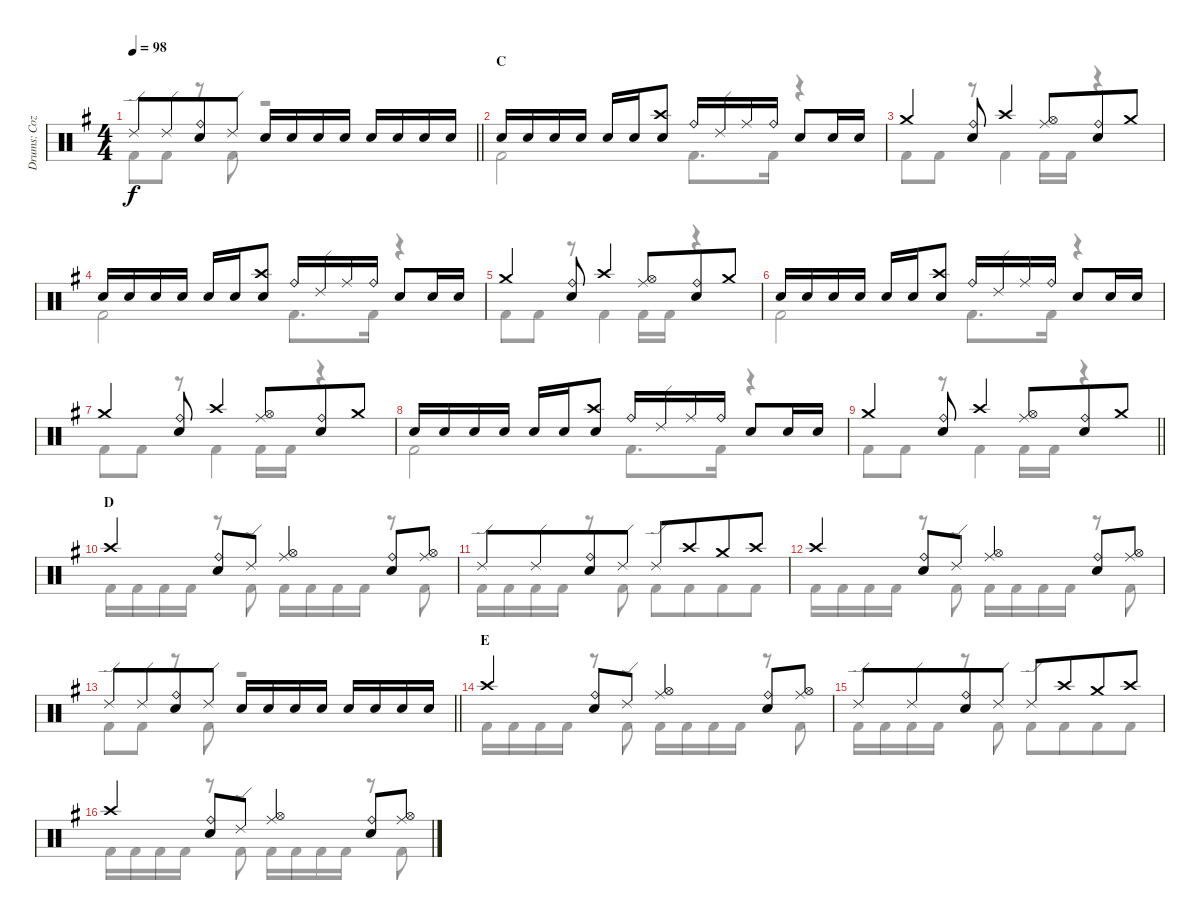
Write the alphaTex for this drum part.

\track ("Drums: Cozy" "Drums: Coz") {instrument percussion}
\staff {score}
\articulation defaults
\voice
\ts (4 4)
\tempo 98
\clef neutral
\barLineRight lightlight
\ks g "Ride (edge) 2".8{dy f} "Ride (edge) 2".8{beam merge}
("Ride (bell)" "Snare (hit) 2").8 "Ride (edge) 2".8 "Snare (hit) 2".16 "Snare (hit) 2".16{beam merge} "Snare (hit) 2".16 "Snare (hit) 2".16 "Snare (hit) 2".16 "Snare (hit) 2".16{beam merge} "Snare (hit) 2".16 "Snare (hit) 2".16 |
\section ("" "C")
"Snare (hit) 2".16 "Snare (hit) 2".16 "Snare (hit) 2".16 "Snare (hit) 2".16 "Snare (hit) 2".16 "Snare (hit) 2".16 ("Crash high (hit)" "Snare (hit) 2").8 "Ride (bell)".16 "Ride (edge) 2".16 "Ride (middle)".16 "Ride (bell)".16 "Snare (hit) 2".8 "Snare (hit) 2".16 "Snare (hit) 2".16 |
"Crash medium (hit)".4 ("Ride (bell)" "Snare (hit) 2").8 "Crash high (hit)".4 ("Ride (middle)" "Hi-Hat (open)").8{beam merge} ("Ride (bell)" "Snare (hit) 2").8 "Crash medium (hit)".8 |
"Snare (hit) 2".16 "Snare (hit) 2".16 "Snare (hit) 2".16 "Snare (hit) 2".16 "Snare (hit) 2".16 "Snare (hit) 2".16 ("Crash high (hit)" "Snare (hit) 2").8 "Ride (bell)".16 "Ride (edge) 2".16 "Ride (middle)".16 "Ride (bell)".16 "Snare (hit) 2".8 "Snare (hit) 2".16 "Snare (hit) 2".16 |
"Crash medium (hit)".4 ("Ride (bell)" "Snare (hit) 2").8 "Crash high (hit)".4 ("Ride (middle)" "Hi-Hat (open)").8{beam merge} ("Ride (bell)" "Snare (hit) 2").8 "Crash medium (hit)".8 |
"Snare (hit) 2".16 "Snare (hit) 2".16 "Snare (hit) 2".16 "Snare (hit) 2".16 "Snare (hit) 2".16 "Snare (hit) 2".16 ("Crash high (hit)" "Snare (hit) 2").8 "Ride (bell)".16 "Ride (edge) 2".16 "Ride (middle)".16 "Ride (bell)".16 "Snare (hit) 2".8 "Snare (hit) 2".16 "Snare (hit) 2".16 |
"Crash medium (hit)".4 ("Ride (bell)" "Snare (hit) 2").8 "Crash high (hit)".4 ("Ride (middle)" "Hi-Hat (open)").8{beam merge} ("Ride (bell)" "Snare (hit) 2").8 "Crash medium (hit)".8 |
"Snare (hit) 2".16 "Snare (hit) 2".16 "Snare (hit) 2".16 "Snare (hit) 2".16 "Snare (hit) 2".16 "Snare (hit) 2".16 ("Crash high (hit)" "Snare (hit) 2").8 "Ride (bell)".16 "Ride (edge) 2".16 "Ride (middle)".16 "Ride (bell)".16 "Snare (hit) 2".8 "Snare (hit) 2".16 "Snare (hit) 2".16 |
\barLineRight lightlight "Crash medium (hit)".4
("Ride (bell)" "Snare (hit) 2").8 "Crash high (hit)".4 ("Ride (middle)" "Hi-Hat (open)").8{beam merge} ("Ride (bell)" "Snare (hit) 2").8 "Crash medium (hit)".8 |
\section ("" "D")
"Crash high (hit)".4 ("Ride (bell)" "Snare (hit) 2").8 "Ride (edge) 2".8 ("Ride (middle)" "Hi-Hat (open)").4 ("Ride (bell)" "Snare (hit) 2").8 ("Ride (middle)" "Hi-Hat (open)").8 |
"Ride (edge) 2".8 "Ride (edge) 2".8{beam merge} ("Ride (bell)" "Snare (hit) 2").8 "Ride (edge) 2".8 "Ride (edge) 2".8 "Crash high (hit)".8{beam merge} "Crash medium (hit)".8 "Crash high (hit)".8 |
"Crash high (hit)".4 ("Ride (bell)" "Snare (hit) 2").8 "Ride (edge) 2".8 ("Ride (middle)" "Hi-Hat (open)").4 ("Ride (bell)" "Snare (hit) 2").8 ("Ride (middle)" "Hi-Hat (open)").8 |
\barLineRight lightlight "Ride (edge) 2".8 "Ride (edge) 2".8{beam merge}
("Ride (bell)" "Snare (hit) 2").8 "Ride (edge) 2".8 "Snare (hit) 2".16 "Snare (hit) 2".16{beam merge} "Snare (hit) 2".16 "Snare (hit) 2".16 "Snare (hit) 2".16 "Snare (hit) 2".16{beam merge} "Snare (hit) 2".16 "Snare (hit) 2".16 |
\section ("" "E")
"Crash high (hit)".4 ("Ride (bell)" "Snare (hit) 2").8 "Ride (edge) 2".8 ("Ride (middle)" "Hi-Hat (open)").4 ("Ride (bell)" "Snare (hit) 2").8 ("Ride (middle)" "Hi-Hat (open)").8 |
"Ride (edge) 2".8 "Ride (edge) 2".8{beam merge} ("Ride (bell)" "Snare (hit) 2").8 "Ride (edge) 2".8 "Ride (edge) 2".8 "Crash high (hit)".8{beam merge} "Crash medium (hit)".8 "Crash high (hit)".8 |
"Crash high (hit)".4 ("Ride (bell)" "Snare (hit) 2").8 "Ride (edge) 2".8 ("Ride (middle)" "Hi-Hat (open)").4 ("Ride (bell)" "Snare (hit) 2").8 ("Ride (middle)" "Hi-Hat (open)").8
\voice
\clef neutral
\ottava regular
\simile none
\barLineRight lightlight
\ks g "Kick (hit) 2".8{dy f} "Kick (hit) 2".8
r.8 "Kick (hit) 2".8 r.2 |
"Kick (hit) 2".2 "Kick (hit) 2".8{d} "Kick (hit) 2".16 r.4 |
"Kick (hit) 2".8 "Kick (hit) 2".8 r.8 "Kick (hit) 2".4 "Kick (hit) 2".16 "Kick (hit) 2".16 r.4 |
"Kick (hit) 2".2 "Kick (hit) 2".8{d} "Kick (hit) 2".16 r.4 |
"Kick (hit) 2".8 "Kick (hit) 2".8 r.8 "Kick (hit) 2".4 "Kick (hit) 2".16 "Kick (hit) 2".16 r.4 |
"Kick (hit) 2".2 "Kick (hit) 2".8{d} "Kick (hit) 2".16 r.4 |
"Kick (hit) 2".8 "Kick (hit) 2".8 r.8 "Kick (hit) 2".4 "Kick (hit) 2".16 "Kick (hit) 2".16 r.4 |
"Kick (hit) 2".2 "Kick (hit) 2".8{d} "Kick (hit) 2".16 r.4 |
\barLineRight lightlight "Kick (hit) 2".8 "Kick (hit) 2".8
r.8 "Kick (hit) 2".4 "Kick (hit) 2".16 "Kick (hit) 2".16 r.4 |
"Kick (hit) 2".16 "Kick (hit) 2".16 "Kick (hit) 2".16 "Kick (hit) 2".16 r.8 "Kick (hit) 2".8 "Kick (hit) 2".16 "Kick (hit) 2".16 "Kick (hit) 2".16 "Kick (hit) 2".16 r.8 "Kick (hit) 2".8 |
"Kick (hit) 2".16 "Kick (hit) 2".16 "Kick (hit) 2".16 "Kick (hit) 2".16 r.8{beam merge} "Kick (hit) 2".8 "Kick (hit) 2".8 "Kick (hit) 2".8{beam merge} "Kick (hit) 2".8 "Kick (hit) 2".8 |
"Kick (hit) 2".16 "Kick (hit) 2".16 "Kick (hit) 2".16 "Kick (hit) 2".16 r.8 "Kick (hit) 2".8 "Kick (hit) 2".16 "Kick (hit) 2".16 "Kick (hit) 2".16 "Kick (hit) 2".16 r.8 "Kick (hit) 2".8 |
\barLineRight lightlight "Kick (hit) 2".8 "Kick (hit) 2".8
r.8 "Kick (hit) 2".8 r.2 |
"Kick (hit) 2".16 "Kick (hit) 2".16 "Kick (hit) 2".16 "Kick (hit) 2".16 r.8 "Kick (hit) 2".8 "Kick (hit) 2".16 "Kick (hit) 2".16 "Kick (hit) 2".16 "Kick (hit) 2".16 r.8 "Kick (hit) 2".8 |
"Kick (hit) 2".16 "Kick (hit) 2".16 "Kick (hit) 2".16 "Kick (hit) 2".16 r.8{beam merge} "Kick (hit) 2".8 "Kick (hit) 2".8 "Kick (hit) 2".8{beam merge} "Kick (hit) 2".8 "Kick (hit) 2".8 |
"Kick (hit) 2".16 "Kick (hit) 2".16 "Kick (hit) 2".16 "Kick (hit) 2".16 r.8 "Kick (hit) 2".8 "Kick (hit) 2".16 "Kick (hit) 2".16 "Kick (hit) 2".16 "Kick (hit) 2".16 r.8 "Kick (hit) 2".8
